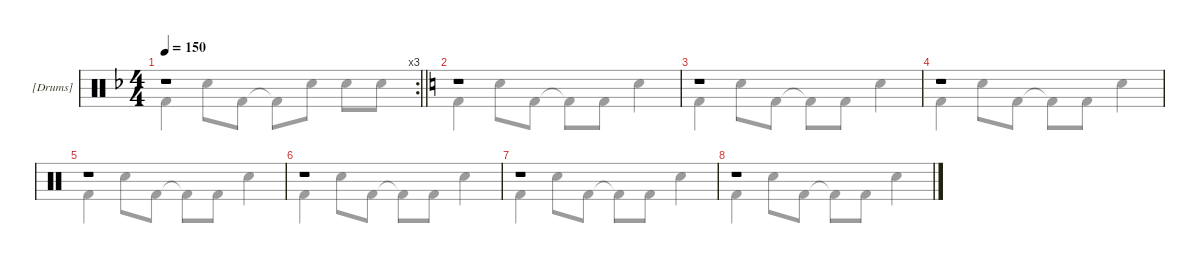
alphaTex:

\hideDynamics
\bracketExtendMode groupsimilarinstruments
\firstSystemTrackNameMode fullname
\firstSystemTrackNameOrientation horizontal
\otherSystemsTrackNameOrientation horizontal
\track ("[Drums]" "Drums") {defaultSystemsLayout 4 instrument percussion}
\staff {score}
\articulation defaults
\voice
\rc 3
\ts (4 4)
\tempo 150
\clef neutral
\barLineRight lightlight
\ks dminor
r.1{dy mf beam Up} |
\ks c
r.1{beam Up} |
r.1{beam Up} |
r.1{beam Up} |
r.1{beam Up} |
r.1{beam Up} |
r.1{beam Up} |
r.1{beam Up}
\voice
\clef neutral
\ottava regular
\simile none
\barLineRight lightlight
\ks dminor "Kick (hit) 2"{acc forcenatural}.4{dy f beam Down} "Snare (hit) 2"{acc forcenatural}.8{beam Down} "Kick (hit) 2"{acc forcenatural}.8{beam Down} "Kick (hit) 2"{t acc forcenatural}.8{beam Down} "Snare (hit) 2"{acc forcenatural}.8{beam Down} "Snare (hit) 2"{acc forcenatural}.8{beam Down} "Snare (hit) 2"{acc forcenatural}.8{beam Down}
|
\ks c "Kick (hit) 2".4{beam Down} "Snare (hit) 2".8{beam Down} "Kick (hit) 2".8{beam Down} "Kick (hit) 2"{t}.8{beam Down} "Kick (hit) 2".8{beam Down} "Snare (hit) 2".4{beam Down}
|
"Kick (hit) 2".4{beam Down} "Snare (hit) 2".8{beam Down} "Kick (hit) 2".8{beam Down} "Kick (hit) 2"{t}.8{beam Down} "Kick (hit) 2".8{beam Down} "Snare (hit) 2".4{beam Down} |
"Kick (hit) 2".4{beam Down} "Snare (hit) 2".8{beam Down} "Kick (hit) 2".8{beam Down} "Kick (hit) 2"{t}.8{beam Down} "Kick (hit) 2".8{beam Down} "Snare (hit) 2".4{beam Down} |
"Kick (hit) 2".4{beam Down} "Snare (hit) 2".8{beam Down} "Kick (hit) 2".8{beam Down} "Kick (hit) 2"{t}.8{beam Down} "Kick (hit) 2".8{beam Down} "Snare (hit) 2".4{beam Down} |
"Kick (hit) 2".4{beam Down} "Snare (hit) 2".8{beam Down} "Kick (hit) 2".8{beam Down} "Kick (hit) 2"{t}.8{beam Down} "Kick (hit) 2".8{beam Down} "Snare (hit) 2".4{beam Down} |
"Kick (hit) 2".4{beam Down} "Snare (hit) 2".8{beam Down} "Kick (hit) 2".8{beam Down} "Kick (hit) 2"{t}.8{beam Down} "Kick (hit) 2".8{beam Down} "Snare (hit) 2".4{beam Down} |
"Kick (hit) 2".4{beam Down} "Snare (hit) 2".8{beam Down} "Kick (hit) 2".8{beam Down} "Kick (hit) 2"{t}.8{beam Down} "Kick (hit) 2".8{beam Down} "Snare (hit) 2".4{beam Down}
